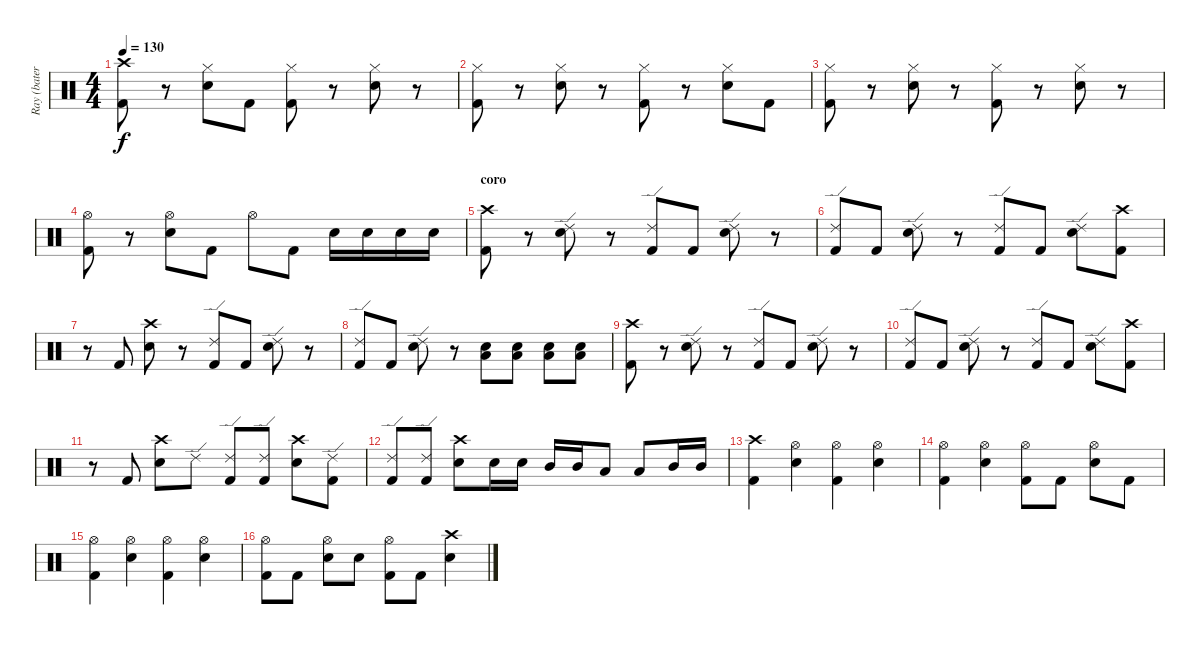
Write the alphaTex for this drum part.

\track ("Ray (batería)" "Ray (bater") {instrument percussion}
\staff {score}
\articulation defaults
\ts (4 4)
\tempo 130
\clef neutral
\ks c
("Crash high (hit)" "Kick (hit) 2").8{dy f} r.8 ("Hi-Hat (closed)" "Snare (hit) 2").8 "Kick (hit) 2".8 ("Hi-Hat (closed)" "Kick (hit) 2").8 r.8 ("Hi-Hat (closed)" "Snare (hit) 2").8 r.8 |
("Hi-Hat (closed)" "Kick (hit) 2").8 r.8 ("Hi-Hat (closed)" "Snare (hit) 2").8 r.8 ("Hi-Hat (closed)" "Kick (hit) 2").8 r.8 ("Hi-Hat (closed)" "Snare (hit) 2").8 "Kick (hit) 2".8 |
("Hi-Hat (closed)" "Kick (hit) 2").8 r.8 ("Hi-Hat (closed)" "Snare (hit) 2").8 r.8 ("Hi-Hat (closed)" "Kick (hit) 2").8 r.8 ("Hi-Hat (closed)" "Snare (hit) 2").8 r.8 |
("Hi-Hat (open)" "Kick (hit) 2").8 r.8 ("Hi-Hat (open)" "Snare (hit) 2").8 "Kick (hit) 2".8 "Hi-Hat (open)".8 "Kick (hit) 2".8 "Snare (hit) 2".16 "Snare (hit) 2".16 "Snare (hit) 2".16 "Snare (hit) 2".16 |
\section ("" "coro")
("Crash high (hit)" "Kick (hit) 2").8 r.8 ("Ride (edge) 2" "Snare (hit) 2").8 r.8 ("Ride (edge) 2" "Kick (hit) 2").8 "Kick (hit) 2".8 ("Ride (edge) 2" "Snare (hit) 2").8 r.8 |
("Ride (edge) 2" "Kick (hit) 2").8 "Kick (hit) 2".8 ("Ride (edge) 2" "Snare (hit) 2").8 r.8 ("Ride (edge) 2" "Kick (hit) 2").8 "Kick (hit) 2".8 ("Ride (edge) 2" "Snare (hit) 2").8 ("Crash high (hit)" "Kick (hit) 2").8 |
r.8 "Kick (hit) 2".8 ("Crash high (hit)" "Snare (hit) 2").8 r.8 ("Ride (edge) 2" "Kick (hit) 2").8 "Kick (hit) 2".8 ("Ride (edge) 2" "Snare (hit) 2").8 r.8 |
("Ride (edge) 2" "Kick (hit) 2").8 "Kick (hit) 2".8 ("Ride (edge) 2" "Snare (hit) 2").8 r.8 ("Snare (hit) 2" "Low Tom (hit)").8 ("Snare (hit) 2" "Low Tom (hit)").8 ("Snare (hit) 2" "Low Tom (hit)").8 ("Snare (hit) 2" "Low Tom (hit)").8 |
("Crash high (hit)" "Kick (hit) 2").8 r.8 ("Ride (edge) 2" "Snare (hit) 2").8 r.8 ("Ride (edge) 2" "Kick (hit) 2").8 "Kick (hit) 2".8 ("Ride (edge) 2" "Snare (hit) 2").8 r.8 |
("Ride (edge) 2" "Kick (hit) 2").8 "Kick (hit) 2".8 ("Ride (edge) 2" "Snare (hit) 2").8 r.8 ("Ride (edge) 2" "Kick (hit) 2").8 "Kick (hit) 2".8 ("Ride (edge) 2" "Snare (hit) 2").8 ("Crash high (hit)" "Kick (hit) 2").8 |
r.8 "Kick (hit) 2".8 ("Crash high (hit)" "Snare (hit) 2").8 "Ride (edge) 2".8 ("Ride (edge) 2" "Kick (hit) 2").8 ("Ride (edge) 2" "Kick (hit) 2").8 ("Crash high (hit)" "Snare (hit) 2").8 ("Ride (edge) 2" "Kick (hit) 2").8 |
("Ride (edge) 2" "Kick (hit) 2").8 ("Ride (edge) 2" "Kick (hit) 2").8 ("Crash high (hit)" "Snare (hit) 2").8 "Snare (hit) 2".16 "Snare (hit) 2".16 "Mid Tom (hit)".16 "Mid Tom (hit)".16 "Low Tom (hit)".8 "Low Tom (hit)".8 "Mid Tom (hit)".16 "Mid Tom (hit)".16 |
\section ("" "")
("Crash high (hit)" "Kick (hit) 2").4 ("Hi-Hat (open)" "Snare (hit) 2").4 ("Hi-Hat (open)" "Kick (hit) 2").4 ("Hi-Hat (open)" "Snare (hit) 2").4 |
("Hi-Hat (open)" "Kick (hit) 2").4 ("Hi-Hat (open)" "Snare (hit) 2").4 ("Hi-Hat (open)" "Kick (hit) 2").8 "Kick (hit) 2".8 ("Hi-Hat (open)" "Snare (hit) 2").8 "Kick (hit) 2".8 |
("Hi-Hat (open)" "Kick (hit) 2").4 ("Hi-Hat (open)" "Snare (hit) 2").4 ("Hi-Hat (open)" "Kick (hit) 2").4 ("Hi-Hat (open)" "Snare (hit) 2").4 |
("Hi-Hat (open)" "Kick (hit) 2").8 "Kick (hit) 2".8 ("Hi-Hat (open)" "Snare (hit) 2").8 "Snare (hit) 2".8 ("Hi-Hat (open)" "Kick (hit) 2").8 "Kick (hit) 2".8 ("Crash high (hit)" "Snare (hit) 2").4
